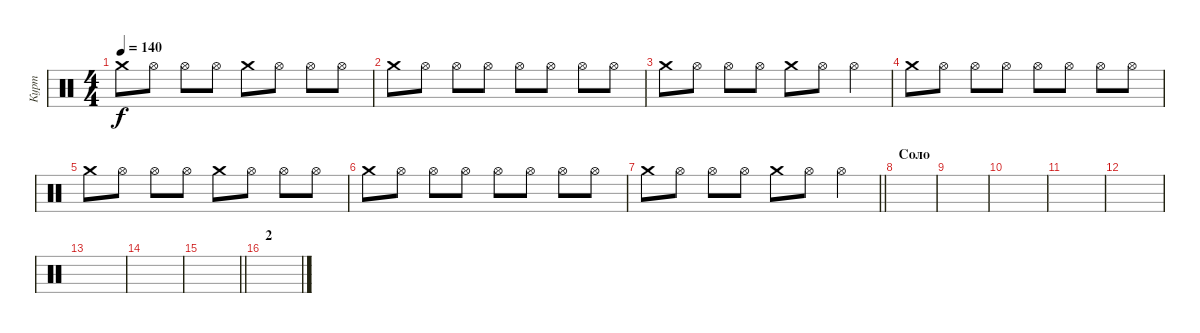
\track ("Курт" "Курт") {instrument percussion}
\staff {score}
\articulation defaults
\ts (4 4)
\tempo 140
\clef neutral
\ks c "Crash medium (hit)".8{dy f} "Hi-Hat (open)".8 "Hi-Hat (open)".8 "Hi-Hat (open)".8 "Crash medium (hit)".8 "Hi-Hat (open)".8 "Hi-Hat (open)".8 "Hi-Hat (open)".8
|
"Crash medium (hit)".8 "Hi-Hat (open)".8 "Hi-Hat (open)".8 "Hi-Hat (open)".8 "Hi-Hat (open)".8 "Hi-Hat (open)".8 "Hi-Hat (open)".8 "Hi-Hat (open)".8 |
"Crash medium (hit)".8 "Hi-Hat (open)".8 "Hi-Hat (open)".8 "Hi-Hat (open)".8 "Crash medium (hit)".8 "Hi-Hat (open)".8 "Hi-Hat (open)".4 |
"Crash medium (hit)".8 "Hi-Hat (open)".8 "Hi-Hat (open)".8 "Hi-Hat (open)".8 "Hi-Hat (open)".8 "Hi-Hat (open)".8 "Hi-Hat (open)".8 "Hi-Hat (open)".8 |
"Crash medium (hit)".8 "Hi-Hat (open)".8 "Hi-Hat (open)".8 "Hi-Hat (open)".8 "Crash medium (hit)".8 "Hi-Hat (open)".8 "Hi-Hat (open)".8 "Hi-Hat (open)".8 |
"Crash medium (hit)".8 "Hi-Hat (open)".8 "Hi-Hat (open)".8 "Hi-Hat (open)".8 "Hi-Hat (open)".8 "Hi-Hat (open)".8 "Hi-Hat (open)".8 "Hi-Hat (open)".8 |
\barLineRight lightlight "Crash medium (hit)".8 "Hi-Hat (open)".8 "Hi-Hat (open)".8 "Hi-Hat (open)".8 "Crash medium (hit)".8 "Hi-Hat (open)".8 "Hi-Hat (open)".4
|
\section ("" "Соло")
|
|
|
|
|
|
|
\barLineRight lightlight
|
\section ("" "2")
